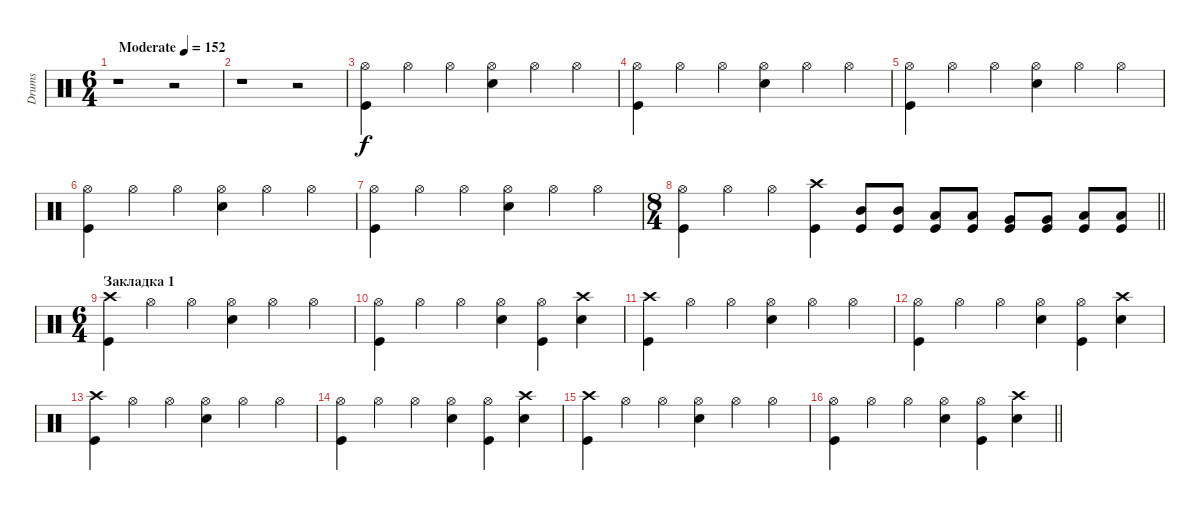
\track ("Drums" "Drums") {instrument percussion}
\staff {score}
\articulation defaults
\ts (6 4)
\tempo (152 "Moderate")
\clef neutral
\ks c
r.1{dy f} r.2 |
r.1 r.2 |
("Hi-Hat (open)" "Kick (hit)").4{volume 6} "Hi-Hat (open)".4 "Hi-Hat (open)".4 ("Hi-Hat (open)" "Snare (hit) 2").4 "Hi-Hat (open)".4 "Hi-Hat (open)".4 |
("Hi-Hat (open)" "Kick (hit)").4{volume 8} "Hi-Hat (open)".4 "Hi-Hat (open)".4 ("Hi-Hat (open)" "Snare (hit) 2").4 "Hi-Hat (open)".4 "Hi-Hat (open)".4 |
("Hi-Hat (open)" "Kick (hit)").4{volume 10} "Hi-Hat (open)".4 "Hi-Hat (open)".4 ("Hi-Hat (open)" "Snare (hit) 2").4 "Hi-Hat (open)".4 "Hi-Hat (open)".4 |
("Hi-Hat (open)" "Kick (hit)").4{volume 12} "Hi-Hat (open)".4 "Hi-Hat (open)".4 ("Hi-Hat (open)" "Snare (hit) 2").4 "Hi-Hat (open)".4 "Hi-Hat (open)".4 |
("Hi-Hat (open)" "Kick (hit)").4{volume 14} "Hi-Hat (open)".4 "Hi-Hat (open)".4 ("Hi-Hat (open)" "Snare (hit) 2").4 "Hi-Hat (open)".4 "Hi-Hat (open)".4 |
\ts (8 4)
\barLineRight lightlight
("Hi-Hat (open)" "Kick (hit)").4{volume 16} "Hi-Hat (open)".4 "Hi-Hat (open)".4 ("Crash high (hit)" "Kick (hit)").4 ("Mid Tom (hit)" "Kick (hit)").8 ("Mid Tom (hit)" "Kick (hit)").8 ("Low Tom (hit)" "Kick (hit)").8 ("Low Tom (hit)" "Kick (hit)").8 ("Very Low Tom (hit)" "Kick (hit)").8 ("Very Low Tom (hit)" "Kick (hit)").8 ("Low Floor Tom (hit)" "Kick (hit)").8 ("Low Floor Tom (hit)" "Kick (hit)").8 |
\ts (6 4)
\section ("" "Закладка 1")
("Crash high (hit)" "Kick (hit)").4 "Hi-Hat (open)".4 "Hi-Hat (open)".4 ("Hi-Hat (open)" "Snare (hit) 2").4 "Hi-Hat (open)".4 "Hi-Hat (open)".4 |
("Hi-Hat (open)" "Kick (hit)").4 "Hi-Hat (open)".4 "Hi-Hat (open)".4 ("Hi-Hat (open)" "Snare (hit) 2").4 ("Hi-Hat (open)" "Kick (hit)").4 ("Crash high (hit)" "Snare (hit) 2").4 |
("Crash high (hit)" "Kick (hit)").4 "Hi-Hat (open)".4 "Hi-Hat (open)".4 ("Hi-Hat (open)" "Snare (hit) 2").4 "Hi-Hat (open)".4 "Hi-Hat (open)".4 |
("Hi-Hat (open)" "Kick (hit)").4 "Hi-Hat (open)".4 "Hi-Hat (open)".4 ("Hi-Hat (open)" "Snare (hit) 2").4 ("Hi-Hat (open)" "Kick (hit)").4 ("Crash high (hit)" "Snare (hit) 2").4 |
("Crash high (hit)" "Kick (hit)").4 "Hi-Hat (open)".4 "Hi-Hat (open)".4 ("Hi-Hat (open)" "Snare (hit) 2").4 "Hi-Hat (open)".4 "Hi-Hat (open)".4 |
("Hi-Hat (open)" "Kick (hit)").4 "Hi-Hat (open)".4 "Hi-Hat (open)".4 ("Hi-Hat (open)" "Snare (hit) 2").4 ("Hi-Hat (open)" "Kick (hit)").4 ("Crash high (hit)" "Snare (hit) 2").4 |
("Crash high (hit)" "Kick (hit)").4 "Hi-Hat (open)".4 "Hi-Hat (open)".4 ("Hi-Hat (open)" "Snare (hit) 2").4 "Hi-Hat (open)".4 "Hi-Hat (open)".4 |
\barLineRight lightlight
("Hi-Hat (open)" "Kick (hit)").4 "Hi-Hat (open)".4 "Hi-Hat (open)".4 ("Hi-Hat (open)" "Snare (hit) 2").4 ("Hi-Hat (open)" "Kick (hit)").4 ("Crash high (hit)" "Snare (hit) 2").4
